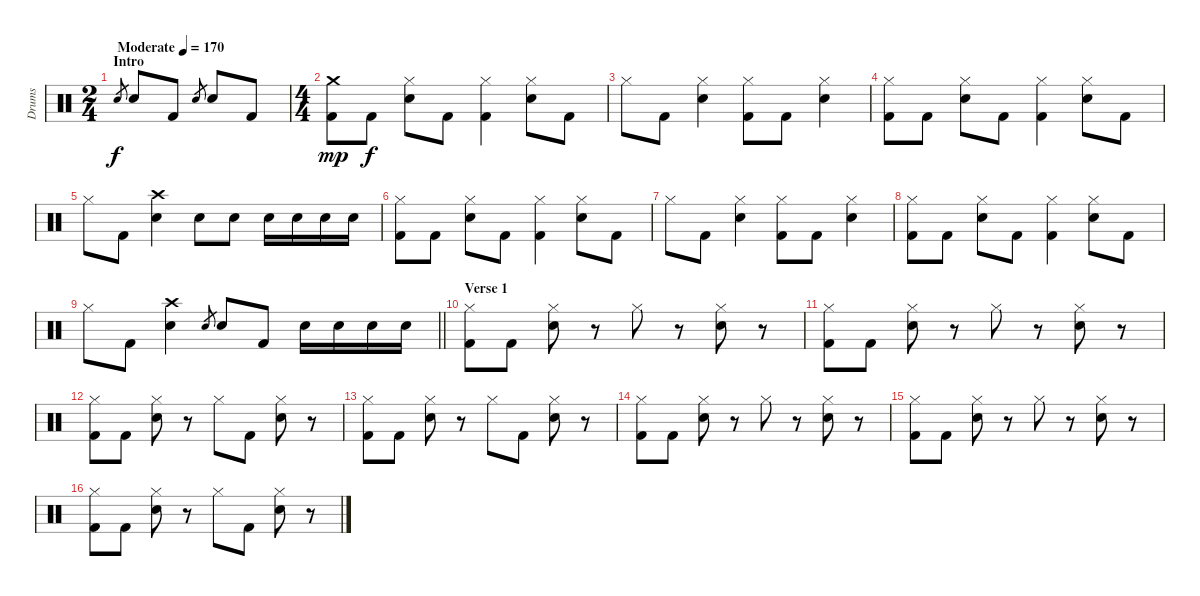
\track ("Drums" "Drums") {instrument percussion}
\staff {score}
\articulation defaults
\ts (2 4)
\section ("" "Intro")
\tempo (170 "Moderate")
\clef neutral
\ks c "Electric Snare (hit)".8{gr dy f} "Electric Snare (hit)".8 "Kick (hit) 2".8 "Electric Snare (hit)".8{gr} "Electric Snare (hit)".8 "Kick (hit) 2".8
|
\ts (4 4)
("Crash medium (hit)" "Kick (hit) 2").8{dy mp} "Kick (hit) 2".8{dy f} ("Hi-Hat (closed)" "Electric Snare (hit)").8 "Kick (hit) 2".8 ("Hi-Hat (closed)" "Kick (hit) 2").4 ("Hi-Hat (closed)" "Electric Snare (hit)").8 "Kick (hit) 2".8 |
"Hi-Hat (closed)".8 "Kick (hit) 2".8 ("Hi-Hat (closed)" "Electric Snare (hit)").4 ("Hi-Hat (closed)" "Kick (hit) 2").8 "Kick (hit) 2".8 ("Hi-Hat (closed)" "Electric Snare (hit)").4 |
("Hi-Hat (closed)" "Kick (hit) 2").8 "Kick (hit) 2".8 ("Hi-Hat (closed)" "Electric Snare (hit)").8 "Kick (hit) 2".8 ("Hi-Hat (closed)" "Kick (hit) 2").4 ("Hi-Hat (closed)" "Electric Snare (hit)").8 "Kick (hit) 2".8 |
"Hi-Hat (closed)".8 "Kick (hit) 2".8 ("Crash high (hit)" "Electric Snare (hit)").4 "Electric Snare (hit)".8 "Electric Snare (hit)".8 "Electric Snare (hit)".16 "Electric Snare (hit)".16 "Electric Snare (hit)".16 "Electric Snare (hit)".16 |
("Hi-Hat (closed)" "Kick (hit) 2").8 "Kick (hit) 2".8 ("Hi-Hat (closed)" "Electric Snare (hit)").8 "Kick (hit) 2".8 ("Hi-Hat (closed)" "Kick (hit) 2").4 ("Hi-Hat (closed)" "Electric Snare (hit)").8 "Kick (hit) 2".8 |
"Hi-Hat (closed)".8 "Kick (hit) 2".8 ("Hi-Hat (closed)" "Electric Snare (hit)").4 ("Hi-Hat (closed)" "Kick (hit) 2").8 "Kick (hit) 2".8 ("Hi-Hat (closed)" "Electric Snare (hit)").4 |
("Hi-Hat (closed)" "Kick (hit) 2").8 "Kick (hit) 2".8 ("Hi-Hat (closed)" "Electric Snare (hit)").8 "Kick (hit) 2".8 ("Hi-Hat (closed)" "Kick (hit) 2").4 ("Hi-Hat (closed)" "Electric Snare (hit)").8 "Kick (hit) 2".8 |
\barLineRight lightlight "Hi-Hat (closed)".8 "Kick (hit) 2".8
("Crash high (hit)" "Electric Snare (hit)").4 "Electric Snare (hit)".8{gr} "Electric Snare (hit)".8 "Kick (hit) 2".8 "Electric Snare (hit)".16 "Electric Snare (hit)".16 "Electric Snare (hit)".16 "Electric Snare (hit)".16 |
\section ("" "Verse 1")
("Hi-Hat (closed)" "Kick (hit) 2").8 "Kick (hit) 2".8 ("Hi-Hat (closed)" "Electric Snare (hit)").8 r.8 "Hi-Hat (closed)".8 r.8 ("Hi-Hat (closed)" "Electric Snare (hit)").8 r.8 |
("Hi-Hat (closed)" "Kick (hit) 2").8 "Kick (hit) 2".8 ("Hi-Hat (closed)" "Electric Snare (hit)").8 r.8 "Hi-Hat (closed)".8 r.8 ("Hi-Hat (closed)" "Electric Snare (hit)").8 r.8 |
("Hi-Hat (closed)" "Kick (hit) 2").8 "Kick (hit) 2".8 ("Hi-Hat (closed)" "Electric Snare (hit)").8 r.8 "Hi-Hat (closed)".8 "Kick (hit) 2".8 ("Hi-Hat (closed)" "Electric Snare (hit)").8 r.8 |
("Hi-Hat (closed)" "Kick (hit) 2").8 "Kick (hit) 2".8 ("Hi-Hat (closed)" "Electric Snare (hit)").8 r.8 "Hi-Hat (closed)".8 "Kick (hit) 2".8 ("Hi-Hat (closed)" "Electric Snare (hit)").8 r.8 |
("Hi-Hat (closed)" "Kick (hit) 2").8 "Kick (hit) 2".8 ("Hi-Hat (closed)" "Electric Snare (hit)").8 r.8 "Hi-Hat (closed)".8 r.8 ("Hi-Hat (closed)" "Electric Snare (hit)").8 r.8 |
("Hi-Hat (closed)" "Kick (hit) 2").8 "Kick (hit) 2".8 ("Hi-Hat (closed)" "Electric Snare (hit)").8 r.8 "Hi-Hat (closed)".8 r.8 ("Hi-Hat (closed)" "Electric Snare (hit)").8 r.8 |
("Hi-Hat (closed)" "Kick (hit) 2").8 "Kick (hit) 2".8 ("Hi-Hat (closed)" "Electric Snare (hit)").8 r.8 "Hi-Hat (closed)".8 "Kick (hit) 2".8 ("Hi-Hat (closed)" "Electric Snare (hit)").8 r.8
